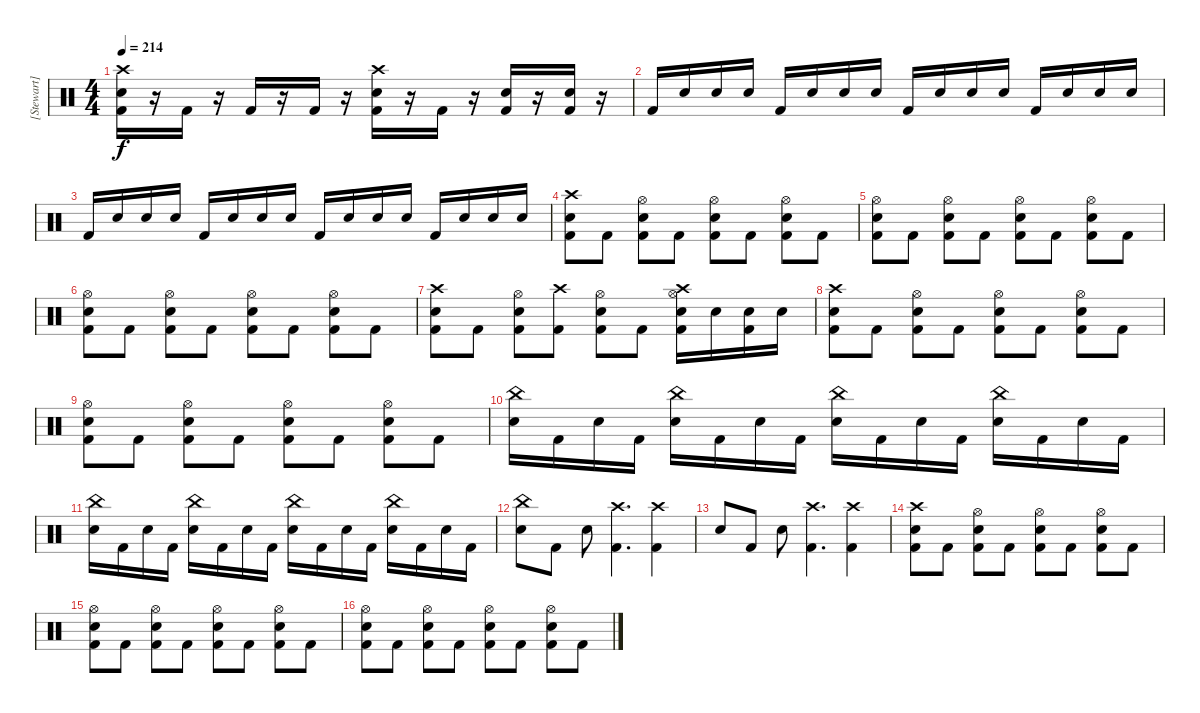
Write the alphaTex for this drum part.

\track ("[Stewart]" "[Stewart]") {instrument percussion}
\staff {score}
\articulation defaults
\ts (4 4)
\tempo 214
\clef neutral
\ks c
("Crash high (hit)" "Kick (hit) 2" "Electric Snare (hit)").16{dy f} r.16 "Kick (hit) 2".16 r.16 "Kick (hit) 2".16 r.16 "Kick (hit) 2".16 r.16 ("Kick (hit) 2" "Crash high (hit)" "Electric Snare (hit)").16 r.16 "Kick (hit) 2".16 r.16 ("Kick (hit) 2" "Electric Snare (hit)").16 r.16 ("Kick (hit) 2" "Electric Snare (hit)").16 r.16 |
"Kick (hit) 2".16 "Electric Snare (hit)".16 "Electric Snare (hit)".16 "Electric Snare (hit)".16 "Kick (hit) 2".16 "Electric Snare (hit)".16 "Electric Snare (hit)".16 "Electric Snare (hit)".16 "Kick (hit) 2".16 "Electric Snare (hit)".16 "Electric Snare (hit)".16 "Electric Snare (hit)".16 "Kick (hit) 2".16 "Electric Snare (hit)".16 "Electric Snare (hit)".16 "Electric Snare (hit)".16 |
"Kick (hit) 2".16 "Electric Snare (hit)".16 "Electric Snare (hit)".16 "Electric Snare (hit)".16 "Kick (hit) 2".16 "Electric Snare (hit)".16 "Electric Snare (hit)".16 "Electric Snare (hit)".16 "Kick (hit) 2".16 "Electric Snare (hit)".16 "Electric Snare (hit)".16 "Electric Snare (hit)".16 "Kick (hit) 2".16 "Electric Snare (hit)".16 "Electric Snare (hit)".16 "Electric Snare (hit)".16 |
("Crash high (hit)" "Electric Snare (hit)" "Kick (hit) 2").8 "Kick (hit) 2".8 ("Hi-Hat (open)" "Electric Snare (hit)" "Kick (hit) 2").8 "Kick (hit) 2".8 ("Hi-Hat (open)" "Electric Snare (hit)" "Kick (hit) 2").8 "Kick (hit) 2".8 ("Hi-Hat (open)" "Electric Snare (hit)" "Kick (hit) 2").8 "Kick (hit) 2".8 |
("Hi-Hat (open)" "Electric Snare (hit)" "Kick (hit) 2").8 "Kick (hit) 2".8 ("Hi-Hat (open)" "Electric Snare (hit)" "Kick (hit) 2").8 "Kick (hit) 2".8 ("Hi-Hat (open)" "Electric Snare (hit)" "Kick (hit) 2").8 "Kick (hit) 2".8 ("Hi-Hat (open)" "Electric Snare (hit)" "Kick (hit) 2").8 "Kick (hit) 2".8 |
("Hi-Hat (open)" "Electric Snare (hit)" "Kick (hit) 2").8 "Kick (hit) 2".8 ("Hi-Hat (open)" "Electric Snare (hit)" "Kick (hit) 2").8 "Kick (hit) 2".8 ("Hi-Hat (open)" "Electric Snare (hit)" "Kick (hit) 2").8 "Kick (hit) 2".8 ("Hi-Hat (open)" "Electric Snare (hit)" "Kick (hit) 2").8 "Kick (hit) 2".8 |
("Crash high (hit)" "Electric Snare (hit)" "Kick (hit) 2").8 "Kick (hit) 2".8 ("Hi-Hat (open)" "Electric Snare (hit)" "Kick (hit) 2").8 ("Crash high (hit)" "Kick (hit) 2").8 ("Hi-Hat (open)" "Electric Snare (hit)" "Kick (hit) 2").8 "Kick (hit) 2".8 ("Hi-Hat (open)" "Crash high (hit)" "Electric Snare (hit)" "Kick (hit) 2").16 "Electric Snare (hit)".16 ("Electric Snare (hit)" "Kick (hit) 2").16 "Electric Snare (hit)".16 |
("Crash high (hit)" "Electric Snare (hit)" "Kick (hit) 2").8 "Kick (hit) 2".8 ("Hi-Hat (open)" "Electric Snare (hit)" "Kick (hit) 2").8 "Kick (hit) 2".8 ("Hi-Hat (open)" "Electric Snare (hit)" "Kick (hit) 2").8 "Kick (hit) 2".8 ("Hi-Hat (open)" "Electric Snare (hit)" "Kick (hit) 2").8 "Kick (hit) 2".8 |
("Hi-Hat (open)" "Electric Snare (hit)" "Kick (hit) 2").8 "Kick (hit) 2".8 ("Hi-Hat (open)" "Electric Snare (hit)" "Kick (hit) 2").8 "Kick (hit) 2".8 ("Hi-Hat (open)" "Electric Snare (hit)" "Kick (hit) 2").8 "Kick (hit) 2".8 ("Hi-Hat (open)" "Electric Snare (hit)" "Kick (hit) 2").8 "Kick (hit) 2".8 |
("China (hit)" "Electric Snare (hit)").16 "Kick (hit) 2".16 "Electric Snare (hit)".16 "Kick (hit) 2".16 ("China (hit)" "Electric Snare (hit)").16 "Kick (hit) 2".16 "Electric Snare (hit)".16 "Kick (hit) 2".16 ("China (hit)" "Electric Snare (hit)").16 "Kick (hit) 2".16 "Electric Snare (hit)".16 "Kick (hit) 2".16 ("China (hit)" "Electric Snare (hit)").16 "Kick (hit) 2".16 "Electric Snare (hit)".16 "Kick (hit) 2".16 |
("China (hit)" "Electric Snare (hit)").16 "Kick (hit) 2".16 "Electric Snare (hit)".16 "Kick (hit) 2".16 ("China (hit)" "Electric Snare (hit)").16 "Kick (hit) 2".16 "Electric Snare (hit)".16 "Kick (hit) 2".16 ("China (hit)" "Electric Snare (hit)").16 "Kick (hit) 2".16 "Electric Snare (hit)".16 "Kick (hit) 2".16 ("China (hit)" "Electric Snare (hit)").16 "Kick (hit) 2".16 "Electric Snare (hit)".16 "Kick (hit) 2".16 |
("China (hit)" "Electric Snare (hit)").8 "Kick (hit) 2".8 "Electric Snare (hit)".8 ("Crash high (hit)" "Kick (hit) 2").4{d} ("Crash high (hit)" "Kick (hit) 2").4 |
"Electric Snare (hit)".8 "Kick (hit) 2".8 "Electric Snare (hit)".8 ("Crash high (hit)" "Kick (hit) 2").4{d} ("Crash high (hit)" "Kick (hit) 2").4 |
("Crash high (hit)" "Electric Snare (hit)" "Kick (hit) 2").8 "Kick (hit) 2".8 ("Hi-Hat (open)" "Electric Snare (hit)" "Kick (hit) 2").8 "Kick (hit) 2".8 ("Hi-Hat (open)" "Electric Snare (hit)" "Kick (hit) 2").8 "Kick (hit) 2".8 ("Hi-Hat (open)" "Electric Snare (hit)" "Kick (hit) 2").8 "Kick (hit) 2".8 |
("Hi-Hat (open)" "Electric Snare (hit)" "Kick (hit) 2").8 "Kick (hit) 2".8 ("Hi-Hat (open)" "Electric Snare (hit)" "Kick (hit) 2").8 "Kick (hit) 2".8 ("Hi-Hat (open)" "Electric Snare (hit)" "Kick (hit) 2").8 "Kick (hit) 2".8 ("Hi-Hat (open)" "Electric Snare (hit)" "Kick (hit) 2").8 "Kick (hit) 2".8 |
("Hi-Hat (open)" "Electric Snare (hit)" "Kick (hit) 2").8 "Kick (hit) 2".8 ("Hi-Hat (open)" "Electric Snare (hit)" "Kick (hit) 2").8 "Kick (hit) 2".8 ("Hi-Hat (open)" "Electric Snare (hit)" "Kick (hit) 2").8 "Kick (hit) 2".8 ("Hi-Hat (open)" "Electric Snare (hit)" "Kick (hit) 2").8 "Kick (hit) 2".8
